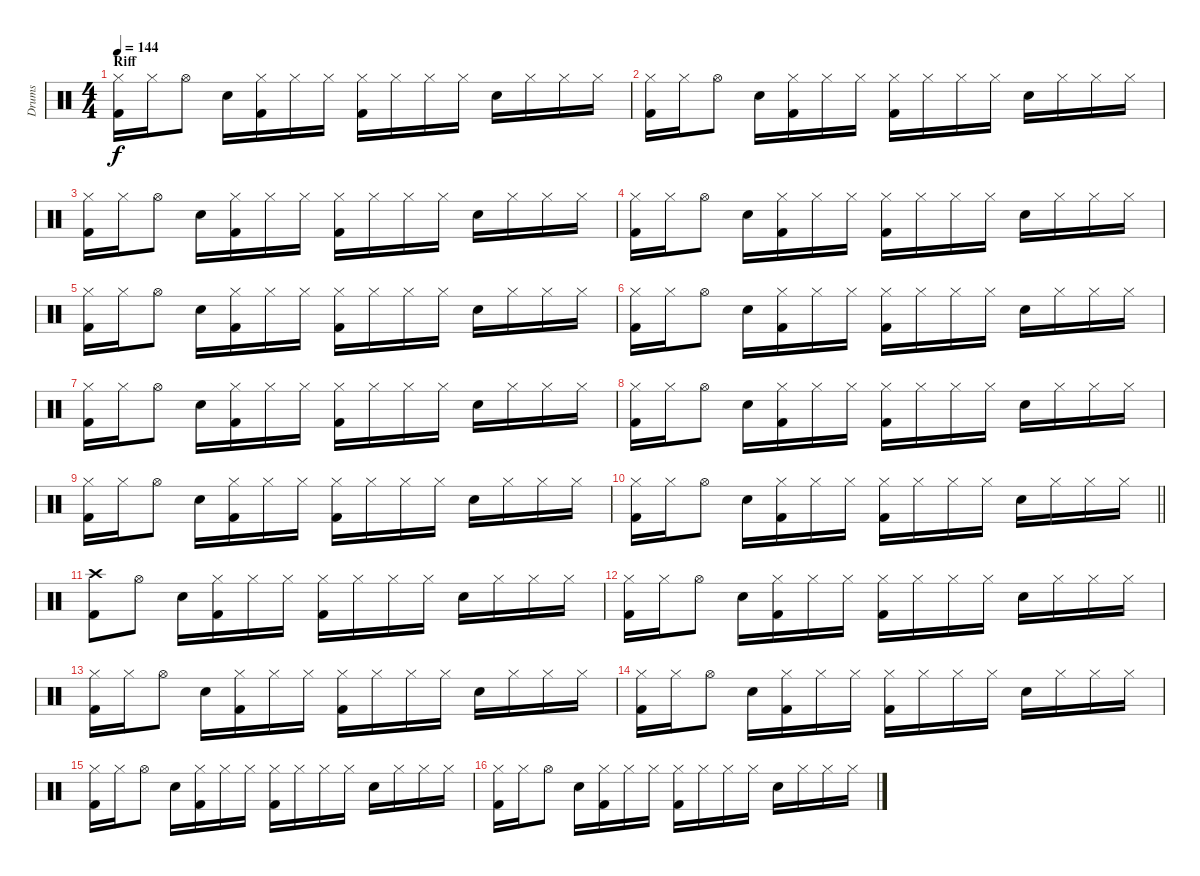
\track ("Drums" "Drums") {instrument percussion}
\staff {score}
\articulation defaults
\ts (4 4)
\section ("" "Riff")
\tempo 144
\clef neutral
\ks c
("Hi-Hat (closed)" "Kick (hit) 2").16{dy f} "Hi-Hat (closed)".16 "Hi-Hat (open)".8 "Electric Snare (hit)".16 ("Hi-Hat (closed)" "Kick (hit) 2").16 "Hi-Hat (closed)".16 "Hi-Hat (closed)".16 ("Hi-Hat (closed)" "Kick (hit) 2").16 "Hi-Hat (closed)".16 "Hi-Hat (closed)".16 "Hi-Hat (closed)".16 "Electric Snare (hit)".16 "Hi-Hat (closed)".16 "Hi-Hat (closed)".16 "Hi-Hat (closed)".16 |
("Hi-Hat (closed)" "Kick (hit) 2").16 "Hi-Hat (closed)".16 "Hi-Hat (open)".8 "Electric Snare (hit)".16 ("Hi-Hat (closed)" "Kick (hit) 2").16 "Hi-Hat (closed)".16 "Hi-Hat (closed)".16 ("Hi-Hat (closed)" "Kick (hit) 2").16 "Hi-Hat (closed)".16 "Hi-Hat (closed)".16 "Hi-Hat (closed)".16 "Electric Snare (hit)".16 "Hi-Hat (closed)".16 "Hi-Hat (closed)".16 "Hi-Hat (closed)".16 |
("Hi-Hat (closed)" "Kick (hit) 2").16 "Hi-Hat (closed)".16 "Hi-Hat (open)".8 "Electric Snare (hit)".16 ("Hi-Hat (closed)" "Kick (hit) 2").16 "Hi-Hat (closed)".16 "Hi-Hat (closed)".16 ("Hi-Hat (closed)" "Kick (hit) 2").16 "Hi-Hat (closed)".16 "Hi-Hat (closed)".16 "Hi-Hat (closed)".16 "Electric Snare (hit)".16 "Hi-Hat (closed)".16 "Hi-Hat (closed)".16 "Hi-Hat (closed)".16 |
("Hi-Hat (closed)" "Kick (hit) 2").16 "Hi-Hat (closed)".16 "Hi-Hat (open)".8 "Electric Snare (hit)".16 ("Hi-Hat (closed)" "Kick (hit) 2").16 "Hi-Hat (closed)".16 "Hi-Hat (closed)".16 ("Hi-Hat (closed)" "Kick (hit) 2").16 "Hi-Hat (closed)".16 "Hi-Hat (closed)".16 "Hi-Hat (closed)".16 "Electric Snare (hit)".16 "Hi-Hat (closed)".16 "Hi-Hat (closed)".16 "Hi-Hat (closed)".16 |
("Hi-Hat (closed)" "Kick (hit) 2").16 "Hi-Hat (closed)".16 "Hi-Hat (open)".8 "Electric Snare (hit)".16 ("Hi-Hat (closed)" "Kick (hit) 2").16 "Hi-Hat (closed)".16 "Hi-Hat (closed)".16 ("Hi-Hat (closed)" "Kick (hit) 2").16 "Hi-Hat (closed)".16 "Hi-Hat (closed)".16 "Hi-Hat (closed)".16 "Electric Snare (hit)".16 "Hi-Hat (closed)".16 "Hi-Hat (closed)".16 "Hi-Hat (closed)".16 |
("Hi-Hat (closed)" "Kick (hit) 2").16 "Hi-Hat (closed)".16 "Hi-Hat (open)".8 "Electric Snare (hit)".16 ("Hi-Hat (closed)" "Kick (hit) 2").16 "Hi-Hat (closed)".16 "Hi-Hat (closed)".16 ("Hi-Hat (closed)" "Kick (hit) 2").16 "Hi-Hat (closed)".16 "Hi-Hat (closed)".16 "Hi-Hat (closed)".16 "Electric Snare (hit)".16 "Hi-Hat (closed)".16 "Hi-Hat (closed)".16 "Hi-Hat (closed)".16 |
("Hi-Hat (closed)" "Kick (hit) 2").16 "Hi-Hat (closed)".16 "Hi-Hat (open)".8 "Electric Snare (hit)".16 ("Hi-Hat (closed)" "Kick (hit) 2").16 "Hi-Hat (closed)".16 "Hi-Hat (closed)".16 ("Hi-Hat (closed)" "Kick (hit) 2").16 "Hi-Hat (closed)".16 "Hi-Hat (closed)".16 "Hi-Hat (closed)".16 "Electric Snare (hit)".16 "Hi-Hat (closed)".16 "Hi-Hat (closed)".16 "Hi-Hat (closed)".16 |
("Hi-Hat (closed)" "Kick (hit) 2").16 "Hi-Hat (closed)".16 "Hi-Hat (open)".8 "Electric Snare (hit)".16 ("Hi-Hat (closed)" "Kick (hit) 2").16 "Hi-Hat (closed)".16 "Hi-Hat (closed)".16 ("Hi-Hat (closed)" "Kick (hit) 2").16 "Hi-Hat (closed)".16 "Hi-Hat (closed)".16 "Hi-Hat (closed)".16 "Electric Snare (hit)".16 "Hi-Hat (closed)".16 "Hi-Hat (closed)".16 "Hi-Hat (closed)".16 |
("Hi-Hat (closed)" "Kick (hit) 2").16 "Hi-Hat (closed)".16 "Hi-Hat (open)".8 "Electric Snare (hit)".16 ("Hi-Hat (closed)" "Kick (hit) 2").16 "Hi-Hat (closed)".16 "Hi-Hat (closed)".16 ("Hi-Hat (closed)" "Kick (hit) 2").16 "Hi-Hat (closed)".16 "Hi-Hat (closed)".16 "Hi-Hat (closed)".16 "Electric Snare (hit)".16 "Hi-Hat (closed)".16 "Hi-Hat (closed)".16 "Hi-Hat (closed)".16 |
\barLineRight lightlight
("Hi-Hat (closed)" "Kick (hit) 2").16 "Hi-Hat (closed)".16 "Hi-Hat (open)".8 "Electric Snare (hit)".16 ("Hi-Hat (closed)" "Kick (hit) 2").16 "Hi-Hat (closed)".16 "Hi-Hat (closed)".16 ("Hi-Hat (closed)" "Kick (hit) 2").16 "Hi-Hat (closed)".16 "Hi-Hat (closed)".16 "Hi-Hat (closed)".16 "Electric Snare (hit)".16 "Hi-Hat (closed)".16 "Hi-Hat (closed)".16 "Hi-Hat (closed)".16 |
("Crash high (hit)" "Kick (hit) 2").8 "Hi-Hat (open)".8 "Electric Snare (hit)".16 ("Hi-Hat (closed)" "Kick (hit) 2").16 "Hi-Hat (closed)".16 "Hi-Hat (closed)".16 ("Hi-Hat (closed)" "Kick (hit) 2").16 "Hi-Hat (closed)".16 "Hi-Hat (closed)".16 "Hi-Hat (closed)".16 "Electric Snare (hit)".16 "Hi-Hat (closed)".16 "Hi-Hat (closed)".16 "Hi-Hat (closed)".16 |
("Hi-Hat (closed)" "Kick (hit) 2").16 "Hi-Hat (closed)".16 "Hi-Hat (open)".8 "Electric Snare (hit)".16 ("Hi-Hat (closed)" "Kick (hit) 2").16 "Hi-Hat (closed)".16 "Hi-Hat (closed)".16 ("Hi-Hat (closed)" "Kick (hit) 2").16 "Hi-Hat (closed)".16 "Hi-Hat (closed)".16 "Hi-Hat (closed)".16 "Electric Snare (hit)".16 "Hi-Hat (closed)".16 "Hi-Hat (closed)".16 "Hi-Hat (closed)".16 |
("Hi-Hat (closed)" "Kick (hit) 2").16 "Hi-Hat (closed)".16 "Hi-Hat (open)".8 "Electric Snare (hit)".16 ("Hi-Hat (closed)" "Kick (hit) 2").16 "Hi-Hat (closed)".16 "Hi-Hat (closed)".16 ("Hi-Hat (closed)" "Kick (hit) 2").16 "Hi-Hat (closed)".16 "Hi-Hat (closed)".16 "Hi-Hat (closed)".16 "Electric Snare (hit)".16 "Hi-Hat (closed)".16 "Hi-Hat (closed)".16 "Hi-Hat (closed)".16 |
("Hi-Hat (closed)" "Kick (hit) 2").16 "Hi-Hat (closed)".16 "Hi-Hat (open)".8 "Electric Snare (hit)".16 ("Hi-Hat (closed)" "Kick (hit) 2").16 "Hi-Hat (closed)".16 "Hi-Hat (closed)".16 ("Hi-Hat (closed)" "Kick (hit) 2").16 "Hi-Hat (closed)".16 "Hi-Hat (closed)".16 "Hi-Hat (closed)".16 "Electric Snare (hit)".16 "Hi-Hat (closed)".16 "Hi-Hat (closed)".16 "Hi-Hat (closed)".16 |
("Hi-Hat (closed)" "Kick (hit) 2").16 "Hi-Hat (closed)".16 "Hi-Hat (open)".8 "Electric Snare (hit)".16 ("Hi-Hat (closed)" "Kick (hit) 2").16 "Hi-Hat (closed)".16 "Hi-Hat (closed)".16 ("Hi-Hat (closed)" "Kick (hit) 2").16 "Hi-Hat (closed)".16 "Hi-Hat (closed)".16 "Hi-Hat (closed)".16 "Electric Snare (hit)".16 "Hi-Hat (closed)".16 "Hi-Hat (closed)".16 "Hi-Hat (closed)".16 |
("Hi-Hat (closed)" "Kick (hit) 2").16 "Hi-Hat (closed)".16 "Hi-Hat (open)".8 "Electric Snare (hit)".16 ("Hi-Hat (closed)" "Kick (hit) 2").16 "Hi-Hat (closed)".16 "Hi-Hat (closed)".16 ("Hi-Hat (closed)" "Kick (hit) 2").16 "Hi-Hat (closed)".16 "Hi-Hat (closed)".16 "Hi-Hat (closed)".16 "Electric Snare (hit)".16 "Hi-Hat (closed)".16 "Hi-Hat (closed)".16 "Hi-Hat (closed)".16
